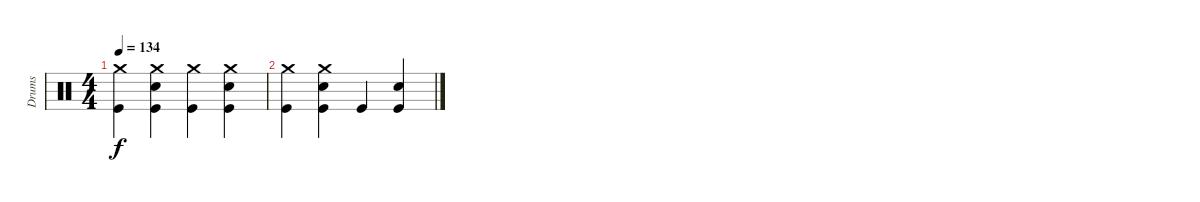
\track ("Drums" "Drums") {solo instrument percussion}
\staff {score}
\articulation defaults
\ts (4 4)
\tempo 134
\clef neutral
\ks c
("Crash medium (hit)" "Kick (hit)").4{dy f} ("Crash medium (hit)" "Kick (hit)" "Snare (hit) 2").4 ("Crash medium (hit)" "Kick (hit)").4 ("Crash medium (hit)" "Kick (hit)" "Snare (hit) 2").4 |
("Crash medium (hit)" "Kick (hit)").4 ("Crash medium (hit)" "Kick (hit)" "Snare (hit) 2").4 "Kick (hit)".4 ("Kick (hit)" "Snare (hit) 2").4
